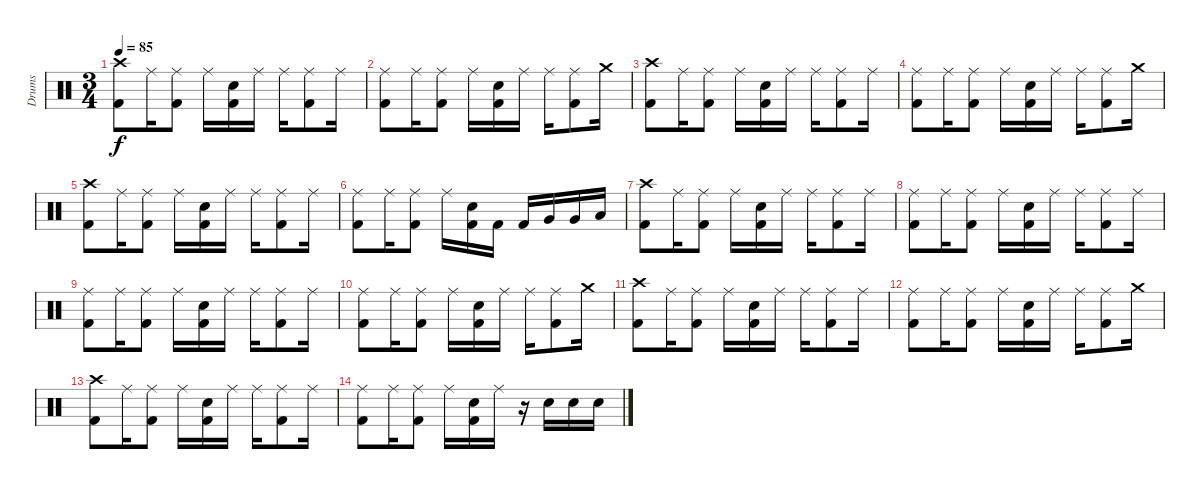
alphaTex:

\track ("Drums" "Drums") {instrument percussion}
\staff {score}
\articulation defaults
\ts (3 4)
\tempo 85
\clef neutral
\ks c
("Crash high (hit)" "Kick (hit) 2").8{dy f} "Ride (middle)".16 ("Ride (middle)" "Kick (hit) 2").8 "Ride (middle)".16 ("Snare (hit) 2" "Kick (hit) 2").16 "Ride (middle)".16 "Ride (middle)".16 ("Ride (middle)" "Kick (hit) 2").8 "Ride (middle)".16 |
("Ride (middle)" "Kick (hit) 2").8 "Ride (middle)".16 ("Ride (middle)" "Kick (hit) 2").8 "Ride (middle)".16 ("Snare (hit) 2" "Kick (hit) 2").16 "Ride (middle)".16 "Ride (middle)".16 ("Ride (middle)" "Kick (hit) 2").8 "Crash medium (hit)".16 |
("Crash high (hit)" "Kick (hit) 2").8 "Ride (middle)".16 ("Ride (middle)" "Kick (hit) 2").8 "Ride (middle)".16 ("Snare (hit) 2" "Kick (hit) 2").16 "Ride (middle)".16 "Ride (middle)".16 ("Ride (middle)" "Kick (hit) 2").8 "Ride (middle)".16 |
("Ride (middle)" "Kick (hit) 2").8 "Ride (middle)".16 ("Ride (middle)" "Kick (hit) 2").8 "Ride (middle)".16 ("Snare (hit) 2" "Kick (hit) 2").16 "Ride (middle)".16 "Ride (middle)".16 ("Ride (middle)" "Kick (hit) 2").8 "Crash medium (hit)".16 |
("Crash high (hit)" "Kick (hit) 2").8 "Ride (middle)".16 ("Ride (middle)" "Kick (hit) 2").8 "Ride (middle)".16 ("Snare (hit) 2" "Kick (hit) 2").16 "Ride (middle)".16 "Ride (middle)".16 ("Ride (middle)" "Kick (hit) 2").8 "Ride (middle)".16 |
("Ride (middle)" "Kick (hit) 2").8 "Ride (middle)".16 ("Ride (middle)" "Kick (hit) 2").8 "Ride (middle)".16 ("Snare (hit) 2" "Kick (hit) 2").16 "Kick (hit) 2".16 "Kick (hit) 2".16 "Very Low Tom (hit)".16 "Very Low Tom (hit)".16 "Low Floor Tom (hit)".16 |
("Crash high (hit)" "Kick (hit) 2").8 "Ride (middle)".16 ("Ride (middle)" "Kick (hit) 2").8 "Ride (middle)".16 ("Snare (hit) 2" "Kick (hit) 2").16 "Ride (middle)".16 "Ride (middle)".16 ("Ride (middle)" "Kick (hit) 2").8 "Ride (middle)".16 |
("Ride (middle)" "Kick (hit) 2").8 "Ride (middle)".16 ("Ride (middle)" "Kick (hit) 2").8 "Ride (middle)".16 ("Snare (hit) 2" "Kick (hit) 2").16 "Ride (middle)".16 "Ride (middle)".16 ("Ride (middle)" "Kick (hit) 2").8 "Ride (middle)".16 |
("Ride (middle)" "Kick (hit) 2").8 "Ride (middle)".16 ("Ride (middle)" "Kick (hit) 2").8 "Ride (middle)".16 ("Snare (hit) 2" "Kick (hit) 2").16 "Ride (middle)".16 "Ride (middle)".16 ("Ride (middle)" "Kick (hit) 2").8 "Ride (middle)".16 |
("Ride (middle)" "Kick (hit) 2").8 "Ride (middle)".16 ("Ride (middle)" "Kick (hit) 2").8 "Ride (middle)".16 ("Snare (hit) 2" "Kick (hit) 2").16 "Ride (middle)".16 "Ride (middle)".16 ("Ride (middle)" "Kick (hit) 2").8 "Crash medium (hit)".16 |
("Crash high (hit)" "Kick (hit) 2").8 "Ride (middle)".16 ("Ride (middle)" "Kick (hit) 2").8 "Ride (middle)".16 ("Snare (hit) 2" "Kick (hit) 2").16 "Ride (middle)".16 "Ride (middle)".16 ("Ride (middle)" "Kick (hit) 2").8 "Ride (middle)".16 |
("Ride (middle)" "Kick (hit) 2").8 "Ride (middle)".16 ("Ride (middle)" "Kick (hit) 2").8 "Ride (middle)".16 ("Snare (hit) 2" "Kick (hit) 2").16 "Ride (middle)".16 "Ride (middle)".16 ("Ride (middle)" "Kick (hit) 2").8 "Crash medium (hit)".16 |
("Crash high (hit)" "Kick (hit) 2").8 "Ride (middle)".16 ("Ride (middle)" "Kick (hit) 2").8 "Ride (middle)".16 ("Snare (hit) 2" "Kick (hit) 2").16 "Ride (middle)".16 "Ride (middle)".16 ("Ride (middle)" "Kick (hit) 2").8 "Ride (middle)".16 |
("Ride (middle)" "Kick (hit) 2").8 "Ride (middle)".16 ("Ride (middle)" "Kick (hit) 2").8 "Ride (middle)".16 ("Snare (hit) 2" "Kick (hit) 2").16 "Ride (middle)".16 r.16 "Snare (hit) 2".16 "Snare (hit) 2".16 "Snare (hit) 2".16
